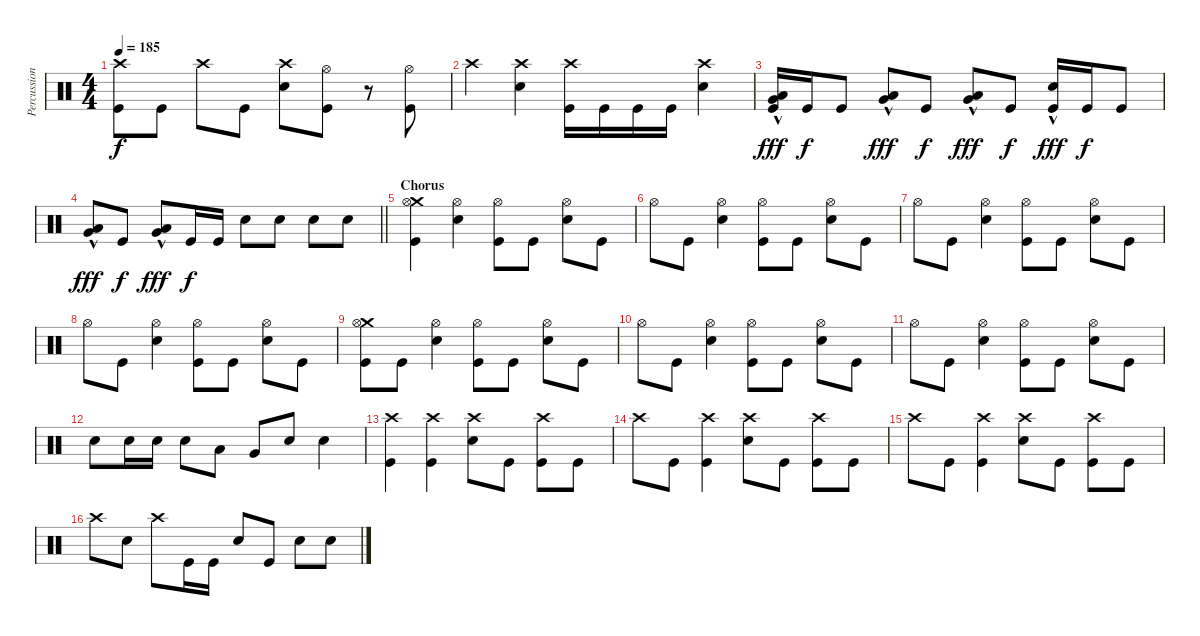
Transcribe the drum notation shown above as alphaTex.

\track ("Percussion" "Percussion") {instrument percussion}
\staff {score}
\articulation defaults
\ts (4 4)
\tempo 185
\clef neutral
\ks c
("Crash high (hit)" "Kick (hit)").8{dy f} "Kick (hit)".8 "Crash high (hit)".8 "Kick (hit)".8 ("Crash high (hit)" "Snare (hit) 2").8 ("Hi-Hat (open)" "Kick (hit)").8 r.8 ("Hi-Hat (open)" "Kick (hit)").8 |
"Crash high (hit)".4 ("Crash high (hit)" "Snare (hit) 2").4 ("Crash high (hit)" "Kick (hit)").16 "Kick (hit)".16 "Kick (hit)".16 "Kick (hit)".16 ("Crash high (hit)" "Snare (hit) 2").4 |
("Very Low Tom (hit)"{hac} "Low Floor Tom (hit)"{hac} "Kick (hit)"{hac}).16{dy fff} "Kick (hit)".16{dy f} "Kick (hit)".8 ("Very Low Tom (hit)"{hac} "Low Floor Tom (hit)"{hac}).8{dy fff} "Kick (hit)".8{dy f} ("Very Low Tom (hit)"{hac} "Low Floor Tom (hit)"{hac}).8{dy fff} "Kick (hit)".8{dy f} ("Snare (hit) 2" "Kick (hit)"{hac}).16{dy fff} "Kick (hit)".16{dy f} "Kick (hit)".8 |
\barLineRight lightlight
("Very Low Tom (hit)"{hac} "Low Floor Tom (hit)"{hac}).8{dy fff} "Kick (hit)".8{dy f} ("Very Low Tom (hit)"{hac} "Low Floor Tom (hit)"{hac}).8{dy fff} "Kick (hit)".16{dy f} "Kick (hit)".16 "Snare (hit) 2".8 "Snare (hit) 2".8 "Snare (hit) 2".8 "Snare (hit) 2".8 |
\section ("" "Chorus")
("Crash medium (hit)" "Hi-Hat (open)" "Kick (hit)").4 ("Hi-Hat (open)" "Snare (hit) 2").4 ("Hi-Hat (open)" "Kick (hit)").8 "Kick (hit)".8 ("Hi-Hat (open)" "Snare (hit) 2").8 "Kick (hit)".8 |
"Hi-Hat (open)".8 "Kick (hit)".8 ("Hi-Hat (open)" "Snare (hit) 2").4 ("Hi-Hat (open)" "Kick (hit)").8 "Kick (hit)".8 ("Hi-Hat (open)" "Snare (hit) 2").8 "Kick (hit)".8 |
"Hi-Hat (open)".8 "Kick (hit)".8 ("Hi-Hat (open)" "Snare (hit) 2").4 ("Hi-Hat (open)" "Kick (hit)").8 "Kick (hit)".8 ("Hi-Hat (open)" "Snare (hit) 2").8 "Kick (hit)".8 |
"Hi-Hat (open)".8 "Kick (hit)".8 ("Hi-Hat (open)" "Snare (hit) 2").4 ("Hi-Hat (open)" "Kick (hit)").8 "Kick (hit)".8 ("Hi-Hat (open)" "Snare (hit) 2").8 "Kick (hit)".8 |
("Crash medium (hit)" "Hi-Hat (open)" "Kick (hit)").8 "Kick (hit)".8 ("Hi-Hat (open)" "Snare (hit) 2").4 ("Hi-Hat (open)" "Kick (hit)").8 "Kick (hit)".8 ("Hi-Hat (open)" "Snare (hit) 2").8 "Kick (hit)".8 |
"Hi-Hat (open)".8 "Kick (hit)".8 ("Hi-Hat (open)" "Snare (hit) 2").4 ("Hi-Hat (open)" "Kick (hit)").8 "Kick (hit)".8 ("Hi-Hat (open)" "Snare (hit) 2").8 "Kick (hit)".8 |
"Hi-Hat (open)".8 "Kick (hit)".8 ("Hi-Hat (open)" "Snare (hit) 2").4 ("Hi-Hat (open)" "Kick (hit)").8 "Kick (hit)".8 ("Hi-Hat (open)" "Snare (hit) 2").8 "Kick (hit)".8 |
"Snare (hit) 2".8 "Snare (hit) 2".16 "Snare (hit) 2".16 "Snare (hit) 2".8 "Low Tom (hit)".8 "Very Low Tom (hit)".8 "Snare (hit) 2".8 "Snare (hit) 2".4 |
("Crash high (hit)" "Kick (hit)").4 ("Crash high (hit)" "Kick (hit)").4 ("Crash high (hit)" "Snare (hit) 2").8 "Kick (hit)".8 ("Crash high (hit)" "Kick (hit)").8 "Kick (hit)".8 |
"Crash high (hit)".8 "Kick (hit)".8 ("Crash high (hit)" "Kick (hit)").4 ("Crash high (hit)" "Snare (hit) 2").8 "Kick (hit)".8 ("Crash high (hit)" "Kick (hit)").8 "Kick (hit)".8 |
"Crash high (hit)".8 "Kick (hit)".8 ("Crash high (hit)" "Kick (hit)").4 ("Crash high (hit)" "Snare (hit) 2").8 "Kick (hit)".8 ("Crash high (hit)" "Kick (hit)").8 "Kick (hit)".8 |
"Crash high (hit)".8 "Snare (hit) 2".8 "Crash high (hit)".8 "Kick (hit)".16 "Kick (hit)".16 "Snare (hit) 2".8 "Kick (hit)".8 "Snare (hit) 2".8 "Snare (hit) 2".8
